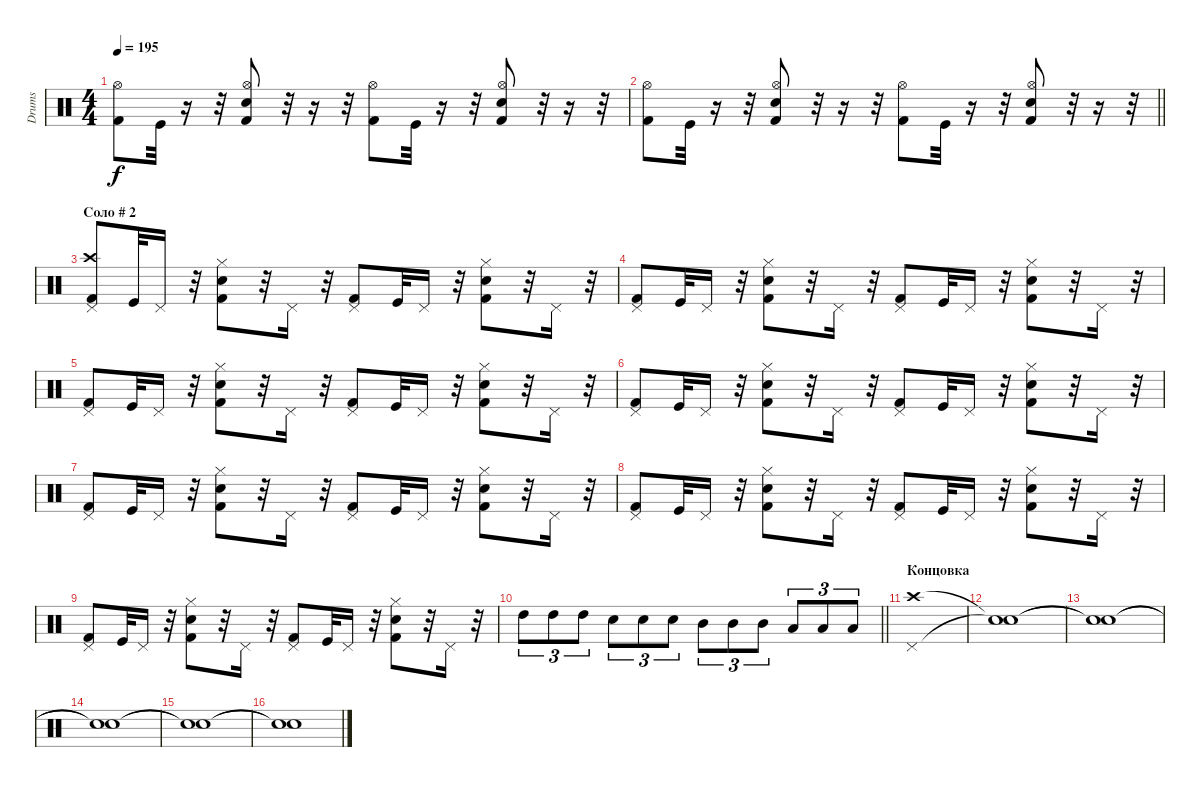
\track ("Drums" "Drums") {instrument percussion}
\staff {score}
\articulation defaults
\ts (4 4)
\tempo 195
\clef neutral
\ks c
("Kick (hit) 2" "Hi-Hat (open)").8{dy f} "Kick (hit)".32 r.16 r.32 ("Snare (hit) 2" "Kick (hit) 2" "Hi-Hat (open)").8 r.32 r.16 r.32 ("Kick (hit) 2" "Hi-Hat (open)").8 "Kick (hit)".32 r.16 r.32 ("Snare (hit) 2" "Kick (hit) 2" "Hi-Hat (open)").8 r.32 r.16 r.32 |
\barLineRight lightlight
("Kick (hit) 2" "Hi-Hat (open)").8 "Kick (hit)".32 r.16 r.32 ("Snare (hit) 2" "Kick (hit) 2" "Hi-Hat (open)").8 r.32 r.16 r.32 ("Kick (hit) 2" "Hi-Hat (open)").8 "Kick (hit)".32 r.16 r.32 ("Snare (hit) 2" "Kick (hit) 2" "Hi-Hat (open)").8 r.32 r.16 r.32 |
\section ("" "Соло # 2")
("Crash high (hit)" "Kick (hit) 2" "Pedal Hi-Hat (hit)").8 "Kick (hit)".32 "Pedal Hi-Hat (hit)".16 r.32 ("Snare (hit) 2" "Kick (hit) 2" "Hi-Hat (closed)").8 r.32 "Pedal Hi-Hat (hit)".16 r.32 ("Kick (hit) 2" "Pedal Hi-Hat (hit)").8 "Kick (hit)".32 "Pedal Hi-Hat (hit)".16 r.32 ("Snare (hit) 2" "Kick (hit) 2" "Hi-Hat (closed)").8 r.32 "Pedal Hi-Hat (hit)".16 r.32 |
("Kick (hit) 2" "Pedal Hi-Hat (hit)").8 "Kick (hit)".32 "Pedal Hi-Hat (hit)".16 r.32 ("Snare (hit) 2" "Kick (hit) 2" "Hi-Hat (closed)").8 r.32 "Pedal Hi-Hat (hit)".16 r.32 ("Kick (hit) 2" "Pedal Hi-Hat (hit)").8 "Kick (hit)".32 "Pedal Hi-Hat (hit)".16 r.32 ("Snare (hit) 2" "Kick (hit) 2" "Hi-Hat (closed)").8 r.32 "Pedal Hi-Hat (hit)".16 r.32 |
("Kick (hit) 2" "Pedal Hi-Hat (hit)").8 "Kick (hit)".32 "Pedal Hi-Hat (hit)".16 r.32 ("Snare (hit) 2" "Kick (hit) 2" "Hi-Hat (closed)").8 r.32 "Pedal Hi-Hat (hit)".16 r.32 ("Kick (hit) 2" "Pedal Hi-Hat (hit)").8 "Kick (hit)".32 "Pedal Hi-Hat (hit)".16 r.32 ("Snare (hit) 2" "Kick (hit) 2" "Hi-Hat (closed)").8 r.32 "Pedal Hi-Hat (hit)".16 r.32 |
("Kick (hit) 2" "Pedal Hi-Hat (hit)").8 "Kick (hit)".32 "Pedal Hi-Hat (hit)".16 r.32 ("Snare (hit) 2" "Kick (hit) 2" "Hi-Hat (closed)").8 r.32 "Pedal Hi-Hat (hit)".16 r.32 ("Kick (hit) 2" "Pedal Hi-Hat (hit)").8 "Kick (hit)".32 "Pedal Hi-Hat (hit)".16 r.32 ("Snare (hit) 2" "Kick (hit) 2" "Hi-Hat (closed)").8 r.32 "Pedal Hi-Hat (hit)".16 r.32 |
("Kick (hit) 2" "Pedal Hi-Hat (hit)").8 "Kick (hit)".32 "Pedal Hi-Hat (hit)".16 r.32 ("Snare (hit) 2" "Kick (hit) 2" "Hi-Hat (closed)").8 r.32 "Pedal Hi-Hat (hit)".16 r.32 ("Kick (hit) 2" "Pedal Hi-Hat (hit)").8 "Kick (hit)".32 "Pedal Hi-Hat (hit)".16 r.32 ("Snare (hit) 2" "Kick (hit) 2" "Hi-Hat (closed)").8 r.32 "Pedal Hi-Hat (hit)".16 r.32 |
("Kick (hit) 2" "Pedal Hi-Hat (hit)").8 "Kick (hit)".32 "Pedal Hi-Hat (hit)".16 r.32 ("Snare (hit) 2" "Kick (hit) 2" "Hi-Hat (closed)").8 r.32 "Pedal Hi-Hat (hit)".16 r.32 ("Kick (hit) 2" "Pedal Hi-Hat (hit)").8 "Kick (hit)".32 "Pedal Hi-Hat (hit)".16 r.32 ("Snare (hit) 2" "Kick (hit) 2" "Hi-Hat (closed)").8 r.32 "Pedal Hi-Hat (hit)".16 r.32 |
("Kick (hit) 2" "Pedal Hi-Hat (hit)").8 "Kick (hit)".32 "Pedal Hi-Hat (hit)".16 r.32 ("Snare (hit) 2" "Kick (hit) 2" "Hi-Hat (closed)").8 r.32 "Pedal Hi-Hat (hit)".16 r.32 ("Kick (hit) 2" "Pedal Hi-Hat (hit)").8 "Kick (hit)".32 "Pedal Hi-Hat (hit)".16 r.32 ("Snare (hit) 2" "Kick (hit) 2" "Hi-Hat (closed)").8 r.32 "Pedal Hi-Hat (hit)".16 r.32 |
\barLineRight lightlight "High Tom (hit)".8{tu (3 2)} "High Tom (hit)".8{tu (3 2)} "High Tom (hit)".8{tu (3 2)} "Electric Snare (hit)".8{tu (3 2)} "Electric Snare (hit)".8{tu (3 2)} "Electric Snare (hit)".8{tu (3 2)} "Mid Tom (hit)".8{tu (3 2)} "Mid Tom (hit)".8{tu (3 2)} "Mid Tom (hit)".8{tu (3 2)} "Low Tom (hit)".8{tu (3 2)} "Low Tom (hit)".8{tu (3 2)} "Low Tom (hit)".8{tu (3 2)}
|
\section ("" "Концовка")
("Crash high (hit)" "Pedal Hi-Hat (hit)").1 |
("Snare (hit)"{t} "Snare (hit)"{t}).1 |
("Snare (hit)"{t} "Snare (hit)"{t}).1 |
("Snare (hit)"{t} "Snare (hit)"{t}).1 |
("Snare (hit)"{t} "Snare (hit)"{t}).1 |
("Snare (hit)"{t} "Snare (hit)"{t}).1
